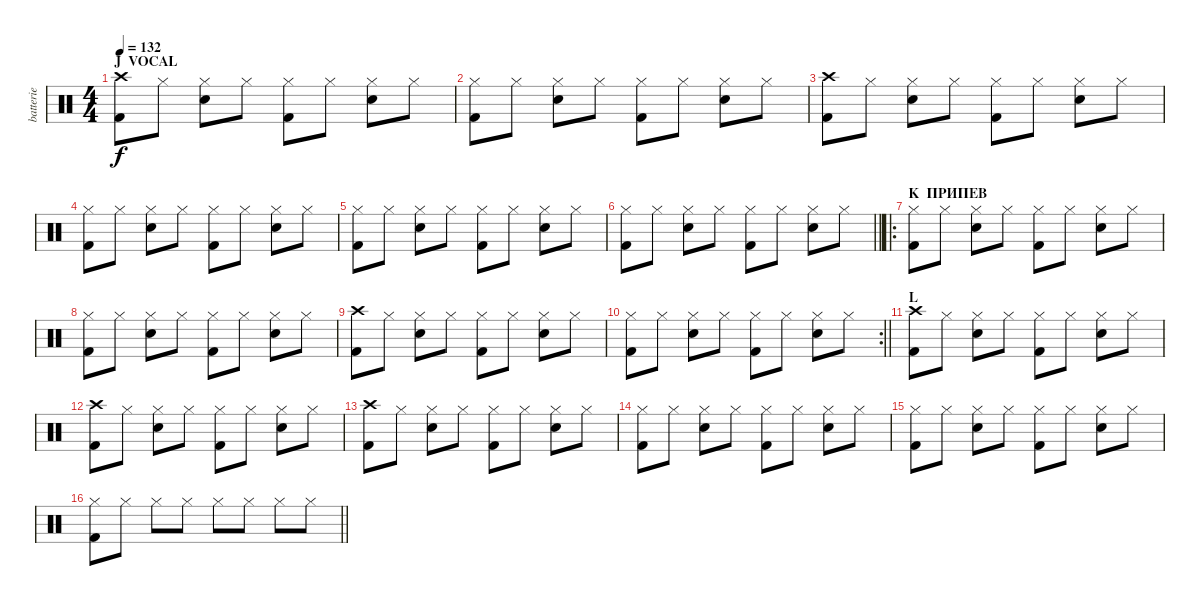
\track ("batterie" "batterie") {instrument percussion}
\staff {score}
\articulation defaults
\ts (4 4)
\section ("" "J  VOCAL")
\tempo 132
\clef neutral
\ks c
("Crash high (hit)" "Kick (hit) 2").8{dy f} "Hi-Hat (closed)".8 ("Hi-Hat (closed)" "Electric Snare (hit)").8 "Hi-Hat (closed)".8 ("Hi-Hat (closed)" "Kick (hit) 2").8 "Hi-Hat (closed)".8 ("Hi-Hat (closed)" "Electric Snare (hit)").8 "Hi-Hat (closed)".8 |
("Hi-Hat (closed)" "Kick (hit) 2").8 "Hi-Hat (closed)".8 ("Hi-Hat (closed)" "Electric Snare (hit)").8 "Hi-Hat (closed)".8 ("Hi-Hat (closed)" "Kick (hit) 2").8 "Hi-Hat (closed)".8 ("Hi-Hat (closed)" "Electric Snare (hit)").8 "Hi-Hat (closed)".8 |
("Crash high (hit)" "Kick (hit) 2").8 "Hi-Hat (closed)".8 ("Hi-Hat (closed)" "Electric Snare (hit)").8 "Hi-Hat (closed)".8 ("Hi-Hat (closed)" "Kick (hit) 2").8 "Hi-Hat (closed)".8 ("Hi-Hat (closed)" "Electric Snare (hit)").8 "Hi-Hat (closed)".8 |
("Hi-Hat (closed)" "Kick (hit) 2").8 "Hi-Hat (closed)".8 ("Hi-Hat (closed)" "Electric Snare (hit)").8 "Hi-Hat (closed)".8 ("Hi-Hat (closed)" "Kick (hit) 2").8 "Hi-Hat (closed)".8 ("Hi-Hat (closed)" "Electric Snare (hit)").8 "Hi-Hat (closed)".8 |
("Hi-Hat (closed)" "Kick (hit) 2").8 "Hi-Hat (closed)".8 ("Hi-Hat (closed)" "Electric Snare (hit)").8 "Hi-Hat (closed)".8 ("Hi-Hat (closed)" "Kick (hit) 2").8 "Hi-Hat (closed)".8 ("Hi-Hat (closed)" "Electric Snare (hit)").8 "Hi-Hat (closed)".8 |
\barLineRight lightlight
("Hi-Hat (closed)" "Kick (hit) 2").8 "Hi-Hat (closed)".8 ("Hi-Hat (closed)" "Electric Snare (hit)").8 "Hi-Hat (closed)".8 ("Hi-Hat (closed)" "Kick (hit) 2").8 "Hi-Hat (closed)".8 ("Hi-Hat (closed)" "Electric Snare (hit)").8 "Hi-Hat (closed)".8 |
\ro
\section ("" "K  ПРИПЕВ")
("Hi-Hat (closed)" "Kick (hit) 2").8 "Hi-Hat (closed)".8 ("Hi-Hat (closed)" "Electric Snare (hit)").8 "Hi-Hat (closed)".8 ("Hi-Hat (closed)" "Kick (hit) 2").8 "Hi-Hat (closed)".8 ("Hi-Hat (closed)" "Electric Snare (hit)").8 "Hi-Hat (closed)".8 |
("Hi-Hat (closed)" "Kick (hit) 2").8 "Hi-Hat (closed)".8 ("Hi-Hat (closed)" "Electric Snare (hit)").8 "Hi-Hat (closed)".8 ("Hi-Hat (closed)" "Kick (hit) 2").8 "Hi-Hat (closed)".8 ("Hi-Hat (closed)" "Electric Snare (hit)").8 "Hi-Hat (closed)".8 |
("Crash high (hit)" "Kick (hit) 2").8 "Hi-Hat (closed)".8 ("Hi-Hat (closed)" "Electric Snare (hit)").8 "Hi-Hat (closed)".8 ("Hi-Hat (closed)" "Kick (hit) 2").8 "Hi-Hat (closed)".8 ("Hi-Hat (closed)" "Electric Snare (hit)").8 "Hi-Hat (closed)".8 |
\rc 2
\barLineRight lightlight
("Hi-Hat (closed)" "Kick (hit) 2").8 "Hi-Hat (closed)".8 ("Hi-Hat (closed)" "Electric Snare (hit)").8 "Hi-Hat (closed)".8 ("Hi-Hat (closed)" "Kick (hit) 2").8 "Hi-Hat (closed)".8 ("Hi-Hat (closed)" "Electric Snare (hit)").8 "Hi-Hat (closed)".8 |
\section ("" "L")
("Crash high (hit)" "Kick (hit) 2").8 "Hi-Hat (closed)".8 ("Hi-Hat (closed)" "Electric Snare (hit)").8 "Hi-Hat (closed)".8 ("Hi-Hat (closed)" "Kick (hit) 2").8 "Hi-Hat (closed)".8 ("Hi-Hat (closed)" "Electric Snare (hit)").8 "Hi-Hat (closed)".8 |
("Crash high (hit)" "Kick (hit) 2").8 "Hi-Hat (closed)".8 ("Hi-Hat (closed)" "Electric Snare (hit)").8 "Hi-Hat (closed)".8 ("Hi-Hat (closed)" "Kick (hit) 2").8 "Hi-Hat (closed)".8 ("Hi-Hat (closed)" "Electric Snare (hit)").8 "Hi-Hat (closed)".8 |
("Crash high (hit)" "Kick (hit) 2").8 "Hi-Hat (closed)".8 ("Hi-Hat (closed)" "Electric Snare (hit)").8 "Hi-Hat (closed)".8 ("Hi-Hat (closed)" "Kick (hit) 2").8 "Hi-Hat (closed)".8 ("Hi-Hat (closed)" "Electric Snare (hit)").8 "Hi-Hat (closed)".8 |
("Hi-Hat (closed)" "Kick (hit) 2").8 "Hi-Hat (closed)".8 ("Hi-Hat (closed)" "Electric Snare (hit)").8 "Hi-Hat (closed)".8 ("Hi-Hat (closed)" "Kick (hit) 2").8 "Hi-Hat (closed)".8 ("Hi-Hat (closed)" "Electric Snare (hit)").8 "Hi-Hat (closed)".8 |
("Hi-Hat (closed)" "Kick (hit) 2").8 "Hi-Hat (closed)".8 ("Hi-Hat (closed)" "Electric Snare (hit)").8 "Hi-Hat (closed)".8 ("Hi-Hat (closed)" "Kick (hit) 2").8 "Hi-Hat (closed)".8 ("Hi-Hat (closed)" "Electric Snare (hit)").8 "Hi-Hat (closed)".8 |
\barLineRight lightlight
("Hi-Hat (closed)" "Kick (hit) 2").8 "Hi-Hat (closed)".8 "Hi-Hat (closed)".8 "Hi-Hat (closed)".8 "Hi-Hat (closed)".8 "Hi-Hat (closed)".8 "Hi-Hat (closed)".8 "Hi-Hat (closed)".8
